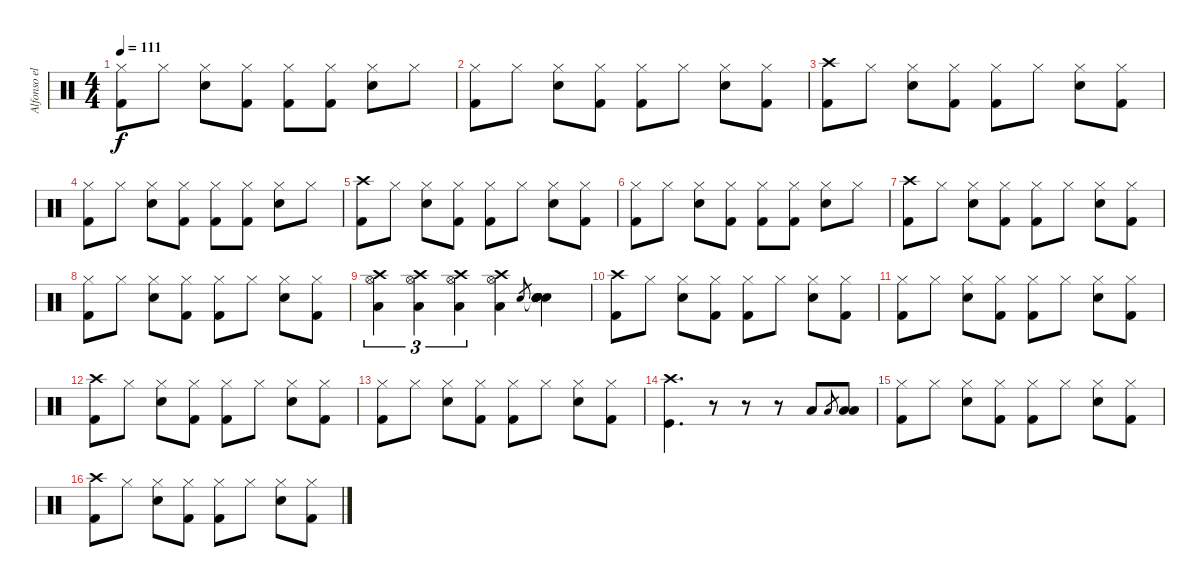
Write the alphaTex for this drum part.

\track ("Alfonso el flaco Andre" "Alfonso el") {instrument percussion}
\staff {score}
\articulation defaults
\ts (4 4)
\tempo 111
\clef neutral
\ks c
("Hi-Hat (closed)" "Kick (hit) 2").8{dy f} "Hi-Hat (closed)".8 ("Hi-Hat (closed)" "Snare (hit) 2").8 ("Hi-Hat (closed)" "Kick (hit) 2").8 ("Hi-Hat (closed)" "Kick (hit) 2").8 ("Hi-Hat (closed)" "Kick (hit) 2").8 ("Hi-Hat (closed)" "Snare (hit) 2").8 "Hi-Hat (closed)".8 |
("Hi-Hat (closed)" "Kick (hit) 2").8 "Hi-Hat (closed)".8 ("Hi-Hat (closed)" "Snare (hit) 2").8 ("Hi-Hat (closed)" "Kick (hit) 2").8 ("Hi-Hat (closed)" "Kick (hit) 2").8 "Hi-Hat (closed)".8 ("Hi-Hat (closed)" "Snare (hit) 2").8 ("Hi-Hat (closed)" "Kick (hit) 2").8 |
("Crash high (hit)" "Kick (hit) 2").8 "Hi-Hat (closed)".8 ("Hi-Hat (closed)" "Snare (hit) 2").8 ("Hi-Hat (closed)" "Kick (hit) 2").8 ("Hi-Hat (closed)" "Kick (hit) 2").8 "Hi-Hat (closed)".8 ("Hi-Hat (closed)" "Snare (hit) 2").8 ("Hi-Hat (closed)" "Kick (hit) 2").8 |
("Hi-Hat (closed)" "Kick (hit) 2").8 "Hi-Hat (closed)".8 ("Hi-Hat (closed)" "Snare (hit) 2").8 ("Hi-Hat (closed)" "Kick (hit) 2").8 ("Hi-Hat (closed)" "Kick (hit) 2").8 ("Hi-Hat (closed)" "Kick (hit) 2").8 ("Hi-Hat (closed)" "Snare (hit) 2").8 "Hi-Hat (closed)".8 |
("Crash high (hit)" "Kick (hit) 2").8 "Hi-Hat (closed)".8 ("Hi-Hat (closed)" "Snare (hit) 2").8 ("Hi-Hat (closed)" "Kick (hit) 2").8 ("Hi-Hat (closed)" "Kick (hit) 2").8 "Hi-Hat (closed)".8 ("Hi-Hat (closed)" "Snare (hit) 2").8 ("Hi-Hat (closed)" "Kick (hit) 2").8 |
("Hi-Hat (closed)" "Kick (hit) 2").8 "Hi-Hat (closed)".8 ("Hi-Hat (closed)" "Snare (hit) 2").8 ("Hi-Hat (closed)" "Kick (hit) 2").8 ("Hi-Hat (closed)" "Kick (hit) 2").8 ("Hi-Hat (closed)" "Kick (hit) 2").8 ("Hi-Hat (closed)" "Snare (hit) 2").8 "Hi-Hat (closed)".8 |
("Crash high (hit)" "Kick (hit) 2").8 "Hi-Hat (closed)".8 ("Hi-Hat (closed)" "Snare (hit) 2").8 ("Hi-Hat (closed)" "Kick (hit) 2").8 ("Hi-Hat (closed)" "Kick (hit) 2").8 "Hi-Hat (closed)".8 ("Hi-Hat (closed)" "Snare (hit) 2").8 ("Hi-Hat (closed)" "Kick (hit) 2").8 |
("Hi-Hat (closed)" "Kick (hit) 2").8 "Hi-Hat (closed)".8 ("Hi-Hat (closed)" "Snare (hit) 2").8 ("Hi-Hat (closed)" "Kick (hit) 2").8 ("Hi-Hat (closed)" "Kick (hit) 2").8 "Hi-Hat (closed)".8 ("Hi-Hat (closed)" "Snare (hit) 2").8 ("Hi-Hat (closed)" "Kick (hit) 2").8 |
("Hi-Hat (open)" "Crash high (hit)" "Low Floor Tom (hit)").4{tu (3 2)} ("Hi-Hat (open)" "Crash high (hit)" "Low Floor Tom (hit)").4{tu (3 2)} ("Hi-Hat (open)" "Crash high (hit)" "Low Floor Tom (hit)").4{tu (3 2)} ("Hi-Hat (open)" "Crash high (hit)" "Low Floor Tom (hit)").4 "Snare (hit) 2".8{gr} ("Snare (hit)"{t} "Snare (hit) 2" "Snare (hit) 2" "Snare (hit) 2" "Snare (hit) 2").4 |
("Crash high (hit)" "Kick (hit) 2").8 "Hi-Hat (closed)".8 ("Hi-Hat (closed)" "Snare (hit) 2").8 ("Hi-Hat (closed)" "Kick (hit) 2").8 ("Hi-Hat (closed)" "Kick (hit) 2").8 "Hi-Hat (closed)".8 ("Hi-Hat (closed)" "Snare (hit) 2").8 ("Hi-Hat (closed)" "Kick (hit) 2").8 |
("Hi-Hat (closed)" "Kick (hit) 2").8 "Hi-Hat (closed)".8 ("Hi-Hat (closed)" "Snare (hit) 2").8 ("Hi-Hat (closed)" "Kick (hit) 2").8 ("Hi-Hat (closed)" "Kick (hit) 2").8 "Hi-Hat (closed)".8 ("Hi-Hat (closed)" "Snare (hit) 2").8 ("Hi-Hat (closed)" "Kick (hit) 2").8 |
("Crash high (hit)" "Kick (hit) 2").8 "Hi-Hat (closed)".8 ("Hi-Hat (closed)" "Snare (hit) 2").8 ("Hi-Hat (closed)" "Kick (hit) 2").8 ("Hi-Hat (closed)" "Kick (hit) 2").8 "Hi-Hat (closed)".8 ("Hi-Hat (closed)" "Snare (hit) 2").8 ("Hi-Hat (closed)" "Kick (hit) 2").8 |
("Hi-Hat (closed)" "Kick (hit) 2").8 "Hi-Hat (closed)".8 ("Hi-Hat (closed)" "Snare (hit) 2").8 ("Hi-Hat (closed)" "Kick (hit) 2").8 ("Hi-Hat (closed)" "Kick (hit) 2").8 "Hi-Hat (closed)".8 ("Hi-Hat (closed)" "Snare (hit) 2").8 ("Hi-Hat (closed)" "Kick (hit) 2").8 |
("Crash high (hit)" "Kick (hit)").4{d} r.8 r.8 r.8 "Low Tom (hit)".8 "Low Floor Tom (hit)".8{gr} ("Low Floor Tom (hit)" "Low Floor Tom (hit)").8 |
("Hi-Hat (closed)" "Kick (hit) 2").8 "Hi-Hat (closed)".8 ("Hi-Hat (closed)" "Snare (hit) 2").8 ("Hi-Hat (closed)" "Kick (hit) 2").8 ("Hi-Hat (closed)" "Kick (hit) 2").8 "Hi-Hat (closed)".8 ("Hi-Hat (closed)" "Snare (hit) 2").8 ("Hi-Hat (closed)" "Kick (hit) 2").8 |
("Crash high (hit)" "Kick (hit) 2").8 "Hi-Hat (closed)".8 ("Hi-Hat (closed)" "Snare (hit) 2").8 ("Hi-Hat (closed)" "Kick (hit) 2").8 ("Hi-Hat (closed)" "Kick (hit) 2").8 "Hi-Hat (closed)".8 ("Hi-Hat (closed)" "Snare (hit) 2").8 ("Hi-Hat (closed)" "Kick (hit) 2").8
